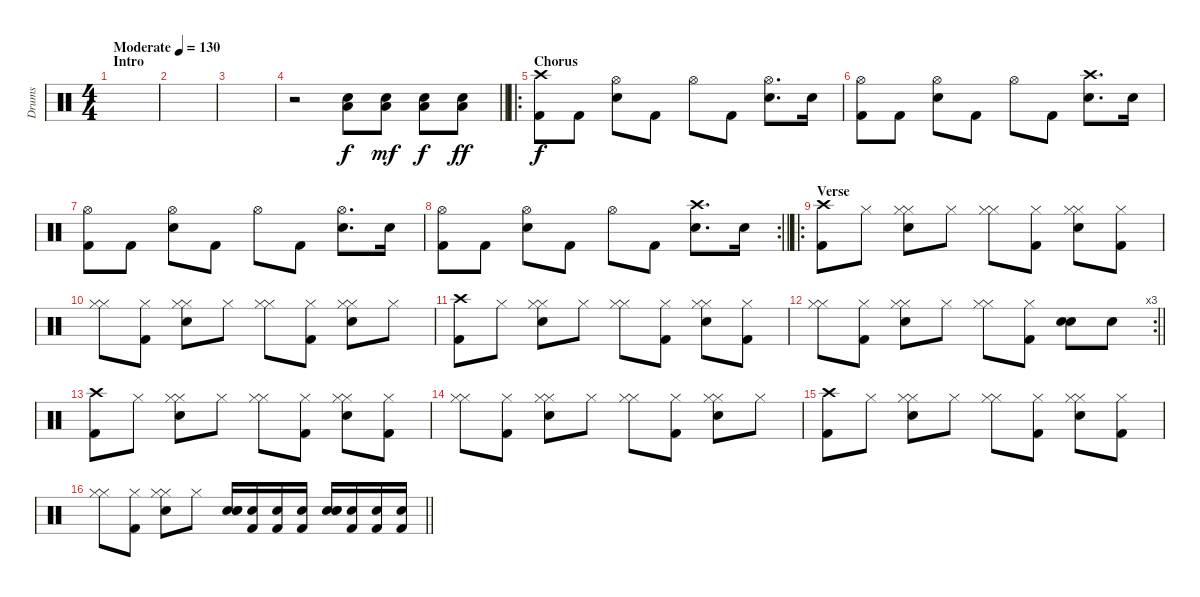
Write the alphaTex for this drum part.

\track ("Drums" "Drums") {instrument percussion}
\staff {score}
\articulation defaults
\ts (4 4)
\section ("" "Intro")
\tempo (130 "Moderate")
\clef neutral
\ks c
|
|
|
\barLineRight lightlight
r.2 ("Electric Snare (hit)" "Low Tom (hit)").8 ("Electric Snare (hit)" "Low Tom (hit)").8{dy mf} ("Electric Snare (hit)" "Low Tom (hit)").8{dy f} ("Electric Snare (hit)" "Low Tom (hit)").8{dy ff} |
\ro
\section ("" "Chorus")
("Crash high (hit)" "Kick (hit) 2").8{dy f} "Kick (hit) 2".8 ("Hi-Hat (open)" "Electric Snare (hit)").8 "Kick (hit) 2".8 "Hi-Hat (open)".8 "Kick (hit) 2".8 ("Hi-Hat (open)" "Electric Snare (hit)").8{d} "Electric Snare (hit)".16 |
("Hi-Hat (open)" "Kick (hit) 2").8 "Kick (hit) 2".8 ("Hi-Hat (open)" "Electric Snare (hit)").8 "Kick (hit) 2".8 "Hi-Hat (open)".8 "Kick (hit) 2".8 ("Crash high (hit)" "Electric Snare (hit)").8{d} "Electric Snare (hit)".16 |
("Hi-Hat (open)" "Kick (hit) 2").8 "Kick (hit) 2".8 ("Hi-Hat (open)" "Electric Snare (hit)").8 "Kick (hit) 2".8 "Hi-Hat (open)".8 "Kick (hit) 2".8 ("Hi-Hat (open)" "Electric Snare (hit)").8{d} "Electric Snare (hit)".16 |
\rc 2
\barLineRight lightlight
("Hi-Hat (open)" "Kick (hit) 2").8 "Kick (hit) 2".8 ("Hi-Hat (open)" "Electric Snare (hit)").8 "Kick (hit) 2".8 "Hi-Hat (open)".8 "Kick (hit) 2".8 ("Crash high (hit)" "Electric Snare (hit)").8{d} "Electric Snare (hit)".16 |
\ro
\section ("" "Verse")
("Crash high (hit)" "Kick (hit) 2").8 "Hi-Hat (closed)".8 ("Hi-Hat (closed)" "Snare (hit) 2" "Hi-Hat (closed)").8 "Hi-Hat (closed)".8 ("Hi-Hat (closed)" "Hi-Hat (closed)").8 ("Kick (hit) 2" "Hi-Hat (closed)").8 ("Hi-Hat (closed)" "Snare (hit) 2" "Hi-Hat (closed)").8 ("Kick (hit) 2" "Hi-Hat (closed)").8 |
("Hi-Hat (closed)" "Hi-Hat (closed)").8 ("Kick (hit) 2" "Hi-Hat (closed)").8 ("Hi-Hat (closed)" "Snare (hit) 2" "Hi-Hat (closed)").8 "Hi-Hat (closed)".8 ("Hi-Hat (closed)" "Hi-Hat (closed)").8 ("Kick (hit) 2" "Hi-Hat (closed)").8 ("Hi-Hat (closed)" "Snare (hit) 2" "Hi-Hat (closed)").8 "Hi-Hat (closed)".8 |
("Crash high (hit)" "Kick (hit) 2").8 "Hi-Hat (closed)".8 ("Hi-Hat (closed)" "Snare (hit) 2" "Hi-Hat (closed)").8 "Hi-Hat (closed)".8 ("Hi-Hat (closed)" "Hi-Hat (closed)").8 ("Kick (hit) 2" "Hi-Hat (closed)").8 ("Hi-Hat (closed)" "Snare (hit) 2" "Hi-Hat (closed)").8 ("Kick (hit) 2" "Hi-Hat (closed)").8 |
\rc 3
\barLineRight lightlight
("Hi-Hat (closed)" "Hi-Hat (closed)").8 ("Kick (hit) 2" "Hi-Hat (closed)").8 ("Hi-Hat (closed)" "Snare (hit) 2" "Hi-Hat (closed)").8 "Hi-Hat (closed)".8 ("Hi-Hat (closed)" "Hi-Hat (closed)").8 ("Kick (hit) 2" "Hi-Hat (closed)").8 ("Snare (hit) 2" "Electric Snare (hit)").8 "Electric Snare (hit)".8 |
("Crash high (hit)" "Kick (hit) 2").8 "Hi-Hat (closed)".8 ("Hi-Hat (closed)" "Snare (hit) 2" "Hi-Hat (closed)").8 "Hi-Hat (closed)".8 ("Hi-Hat (closed)" "Hi-Hat (closed)").8 ("Kick (hit) 2" "Hi-Hat (closed)").8 ("Hi-Hat (closed)" "Snare (hit) 2" "Hi-Hat (closed)").8 ("Kick (hit) 2" "Hi-Hat (closed)").8 |
("Hi-Hat (closed)" "Hi-Hat (closed)").8 ("Kick (hit) 2" "Hi-Hat (closed)").8 ("Hi-Hat (closed)" "Snare (hit) 2" "Hi-Hat (closed)").8 "Hi-Hat (closed)".8 ("Hi-Hat (closed)" "Hi-Hat (closed)").8 ("Kick (hit) 2" "Hi-Hat (closed)").8 ("Hi-Hat (closed)" "Snare (hit) 2" "Hi-Hat (closed)").8 "Hi-Hat (closed)".8 |
("Crash high (hit)" "Kick (hit) 2").8 "Hi-Hat (closed)".8 ("Hi-Hat (closed)" "Snare (hit) 2" "Hi-Hat (closed)").8 "Hi-Hat (closed)".8 ("Hi-Hat (closed)" "Hi-Hat (closed)").8 ("Kick (hit) 2" "Hi-Hat (closed)").8 ("Hi-Hat (closed)" "Snare (hit) 2" "Hi-Hat (closed)").8 ("Kick (hit) 2" "Hi-Hat (closed)").8 |
\barLineRight lightlight
("Hi-Hat (closed)" "Hi-Hat (closed)").8 ("Kick (hit) 2" "Hi-Hat (closed)").8 ("Hi-Hat (closed)" "Snare (hit) 2" "Hi-Hat (closed)").8 "Hi-Hat (closed)".8 ("Snare (hit) 2" "Electric Snare (hit)" "Electric Snare (hit)").16 ("Kick (hit) 2" "Electric Snare (hit)").16 ("Kick (hit) 2" "Electric Snare (hit)").16 ("Kick (hit) 2" "Electric Snare (hit)").16 ("Snare (hit) 2" "Electric Snare (hit)" "Electric Snare (hit)").16 ("Kick (hit) 2" "Electric Snare (hit)").16 ("Kick (hit) 2" "Electric Snare (hit)").16 ("Kick (hit) 2" "Electric Snare (hit)").16
